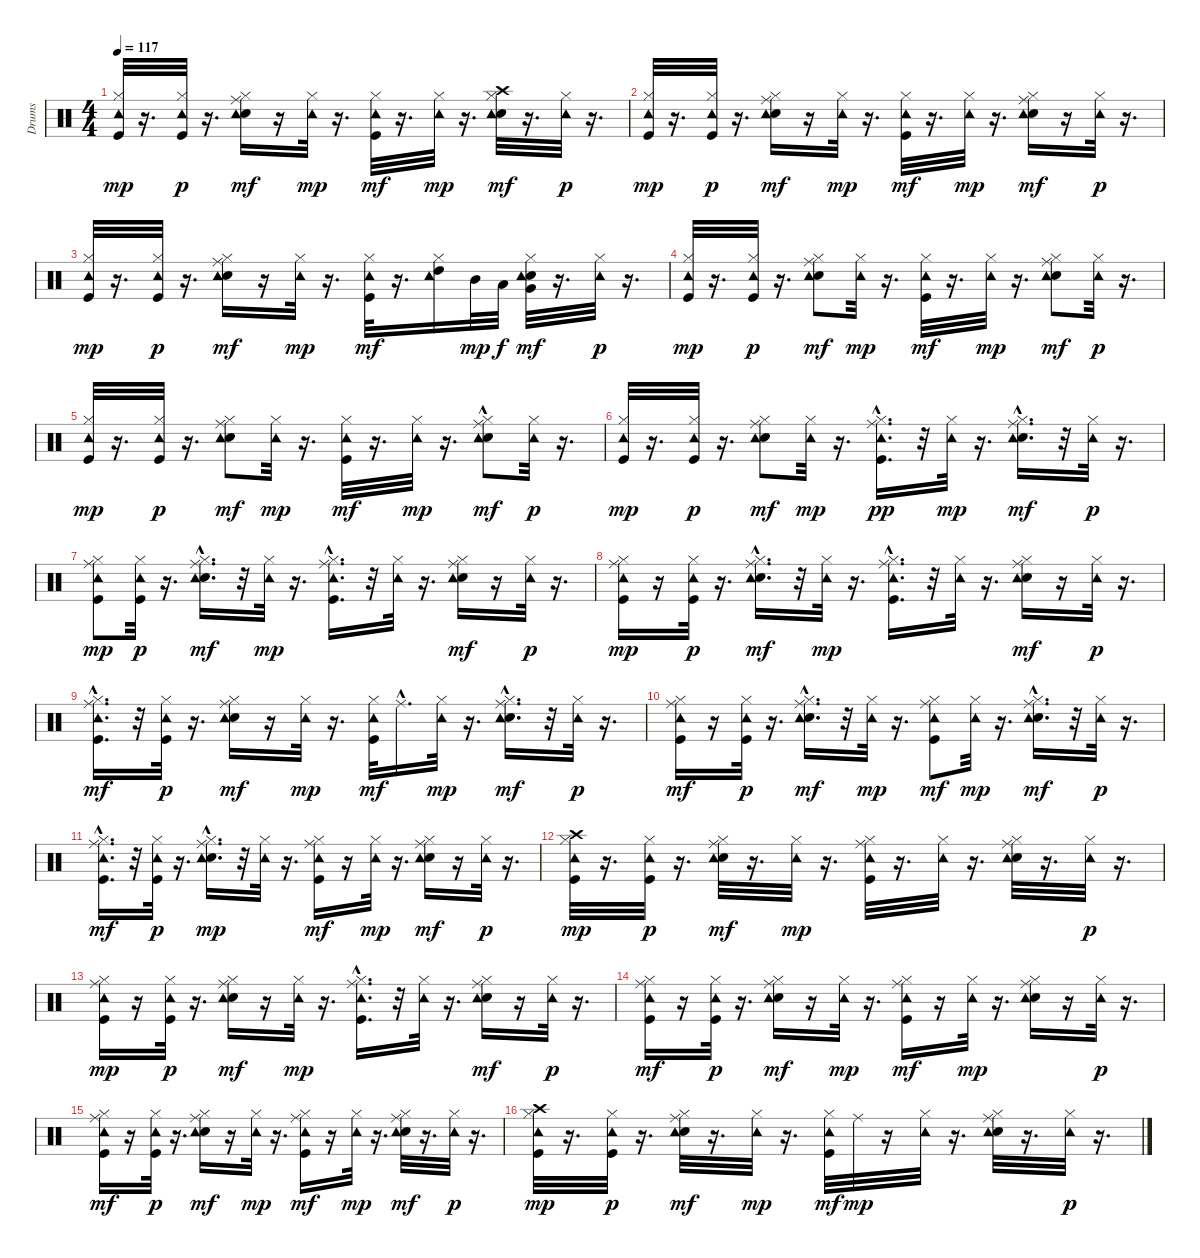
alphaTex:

\track ("Drums" "Drums") {instrument percussion}
\staff {score}
\articulation defaults
\ts (4 4)
\tempo 117
\clef neutral
\ks c
("Kick (hit)" "Hi-Hat (closed)" "Tambourine (hit)").32{dy mp} r.16{d} ("Kick (hit)" "Hi-Hat (closed)" "Tambourine (hit)").32{dy p} r.16{d} ("Electric Snare (hit)" "Hi-Hat (closed)" "Tambourine (hit)" "Ride (middle)").16{dy mf} r.16 ("Hi-Hat (closed)" "Tambourine (hit)").32{dy mp} r.16{d} ("Kick (hit)" "Hi-Hat (closed)" "Tambourine (hit)").32{dy mf} r.16{d} ("Hi-Hat (closed)" "Tambourine (hit)").32{dy mp} r.16{d} ("Electric Snare (hit)" "Hi-Hat (closed)" "Tambourine (hit)" "Crash high (hit)").32{dy mf} r.16{d} ("Hi-Hat (closed)" "Tambourine (hit)").32{dy p} r.16{d} |
("Kick (hit)" "Hi-Hat (closed)" "Tambourine (hit)").32{dy mp} r.16{d} ("Kick (hit)" "Hi-Hat (closed)" "Tambourine (hit)").32{dy p} r.16{d} ("Electric Snare (hit)" "Hi-Hat (closed)" "Tambourine (hit)" "Ride (middle)").16{dy mf} r.16 ("Hi-Hat (closed)" "Tambourine (hit)").32{dy mp} r.16{d} ("Kick (hit)" "Hi-Hat (closed)" "Tambourine (hit)").32{dy mf} r.16{d} ("Hi-Hat (closed)" "Tambourine (hit)").32{dy mp} r.16{d} ("Electric Snare (hit)" "Hi-Hat (closed)" "Tambourine (hit)" "Ride (middle)").16{dy mf} r.16 ("Hi-Hat (closed)" "Tambourine (hit)").32{dy p} r.16{d} |
("Kick (hit)" "Hi-Hat (closed)" "Tambourine (hit)").32{dy mp} r.16{d} ("Kick (hit)" "Hi-Hat (closed)" "Tambourine (hit)").32{dy p} r.16{d} ("Electric Snare (hit)" "Hi-Hat (closed)" "Tambourine (hit)" "Ride (middle)").16{dy mf} r.16 ("Hi-Hat (closed)" "Tambourine (hit)").32{dy mp} r.16{d} ("Kick (hit)" "Hi-Hat (closed)" "Tambourine (hit)").32{dy mf} r.16{d} ("Hi-Hat (closed)" "Tambourine (hit)" "High Tom (hit)").16 "Mid Tom (hit)".32{dy mp} "Low Tom (hit)".32{dy f} ("Electric Snare (hit)" "Hi-Hat (closed)" "Tambourine (hit)" "Very Low Tom (hit)").32{dy mf} r.16{d} ("Hi-Hat (closed)" "Tambourine (hit)").32{dy p} r.16{d} |
("Kick (hit)" "Hi-Hat (closed)" "Tambourine (hit)").32{dy mp} r.16{d} ("Kick (hit)" "Hi-Hat (closed)" "Tambourine (hit)").32{dy p} r.16{d} ("Electric Snare (hit)" "Hi-Hat (closed)" "Tambourine (hit)" "Ride (middle)").8{dy mf} ("Hi-Hat (closed)" "Tambourine (hit)").32{dy mp} r.16{d} ("Kick (hit)" "Hi-Hat (closed)" "Tambourine (hit)").32{dy mf} r.16{d} ("Hi-Hat (closed)" "Tambourine (hit)").32{dy mp} r.16{d} ("Electric Snare (hit)" "Hi-Hat (closed)" "Tambourine (hit)" "Ride (middle)").8{dy mf} ("Hi-Hat (closed)" "Tambourine (hit)").32{dy p} r.16{d} |
("Kick (hit)" "Hi-Hat (closed)" "Tambourine (hit)").32{dy mp} r.16{d} ("Kick (hit)" "Hi-Hat (closed)" "Tambourine (hit)").32{dy p} r.16{d} ("Electric Snare (hit)" "Hi-Hat (closed)" "Tambourine (hit)" "Ride (middle)").8{dy mf} ("Hi-Hat (closed)" "Tambourine (hit)").32{dy mp} r.16{d} ("Kick (hit)" "Hi-Hat (closed)" "Tambourine (hit)").32{dy mf} r.16{d} ("Hi-Hat (closed)" "Tambourine (hit)").32{dy mp} r.16{d} ("Electric Snare (hit)" "Hi-Hat (closed)" "Tambourine (hit)" "Ride (middle)"{hac}).8{dy mf} ("Hi-Hat (closed)" "Tambourine (hit)").32{dy p} r.16{d} |
("Kick (hit)" "Hi-Hat (closed)" "Tambourine (hit)").32{dy mp} r.16{d} ("Kick (hit)" "Hi-Hat (closed)" "Tambourine (hit)").32{dy p} r.16{d} ("Electric Snare (hit)" "Hi-Hat (closed)" "Tambourine (hit)" "Ride (middle)").8{dy mf} ("Hi-Hat (closed)" "Tambourine (hit)").32{dy mp} r.16{d} ("Kick (hit)" "Hi-Hat (closed)" "Tambourine (hit)" "Ride (middle)"{hac}).16{d dy pp} r.32 ("Hi-Hat (closed)" "Tambourine (hit)").32{dy mp} r.16{d} ("Electric Snare (hit)" "Hi-Hat (closed)" "Tambourine (hit)" "Ride (middle)"{hac}).16{d dy mf} r.32 ("Hi-Hat (closed)" "Tambourine (hit)").32{dy p} r.16{d} |
("Kick (hit)" "Hi-Hat (closed)" "Tambourine (hit)" "Ride (middle)").8{dy mp} ("Kick (hit)" "Hi-Hat (closed)" "Tambourine (hit)").32{dy p} r.16{d} ("Electric Snare (hit)" "Hi-Hat (closed)" "Tambourine (hit)" "Ride (middle)"{hac}).16{d dy mf} r.32 ("Hi-Hat (closed)" "Tambourine (hit)").32{dy mp} r.16{d} ("Kick (hit)" "Hi-Hat (closed)" "Tambourine (hit)" "Ride (middle)"{hac}).16{d} r.32 ("Hi-Hat (closed)" "Tambourine (hit)").32 r.16{d} ("Electric Snare (hit)" "Hi-Hat (closed)" "Tambourine (hit)" "Ride (middle)").16{dy mf} r.16 ("Hi-Hat (closed)" "Tambourine (hit)").32{dy p} r.16{d} |
("Kick (hit)" "Hi-Hat (closed)" "Tambourine (hit)" "Ride (middle)").16{dy mp} r.16 ("Kick (hit)" "Hi-Hat (closed)" "Tambourine (hit)").32{dy p} r.16{d} ("Electric Snare (hit)" "Hi-Hat (closed)" "Tambourine (hit)" "Ride (middle)"{hac}).16{d dy mf} r.32 ("Hi-Hat (closed)" "Tambourine (hit)").32{dy mp} r.16{d} ("Kick (hit)" "Hi-Hat (closed)" "Tambourine (hit)" "Ride (middle)"{hac}).16{d} r.32 ("Hi-Hat (closed)" "Tambourine (hit)").32 r.16{d} ("Electric Snare (hit)" "Hi-Hat (closed)" "Tambourine (hit)" "Ride (middle)").16{dy mf} r.16 ("Hi-Hat (closed)" "Tambourine (hit)").32{dy p} r.16{d} |
("Kick (hit)" "Hi-Hat (closed)" "Tambourine (hit)" "Ride (middle)"{hac}).16{d dy mf} r.32 ("Kick (hit)" "Hi-Hat (closed)" "Tambourine (hit)").32{dy p} r.16{d} ("Electric Snare (hit)" "Hi-Hat (closed)" "Tambourine (hit)" "Ride (middle)").16{dy mf} r.16 ("Hi-Hat (closed)" "Tambourine (hit)").32{dy mp} r.16{d} ("Kick (hit)" "Hi-Hat (closed)" "Tambourine (hit)").32{dy mf} "Ride (middle)"{hac}.16{d} ("Hi-Hat (closed)" "Tambourine (hit)").32{dy mp} r.16{d} ("Electric Snare (hit)" "Hi-Hat (closed)" "Tambourine (hit)" "Ride (middle)"{hac}).16{d dy mf} r.32 ("Hi-Hat (closed)" "Tambourine (hit)").32{dy p} r.16{d} |
("Kick (hit)" "Hi-Hat (closed)" "Tambourine (hit)" "Ride (middle)").16{dy mf} r.16 ("Kick (hit)" "Hi-Hat (closed)" "Tambourine (hit)").32{dy p} r.16{d} ("Electric Snare (hit)" "Hi-Hat (closed)" "Tambourine (hit)" "Ride (middle)"{hac}).16{d dy mf} r.32 ("Hi-Hat (closed)" "Tambourine (hit)").32{dy mp} r.16{d} ("Kick (hit)" "Hi-Hat (closed)" "Tambourine (hit)" "Ride (middle)").8{dy mf} ("Hi-Hat (closed)" "Tambourine (hit)").32{dy mp} r.16{d} ("Electric Snare (hit)" "Hi-Hat (closed)" "Tambourine (hit)" "Ride (middle)"{hac}).16{d dy mf} r.32 ("Hi-Hat (closed)" "Tambourine (hit)").32{dy p} r.16{d} |
("Kick (hit)" "Hi-Hat (closed)" "Tambourine (hit)" "Ride (middle)"{hac}).16{d dy mf} r.32 ("Kick (hit)" "Hi-Hat (closed)" "Tambourine (hit)").32{dy p} r.16{d} ("Electric Snare (hit)" "Hi-Hat (closed)" "Tambourine (hit)" "Ride (middle)"{hac}).16{d dy mp} r.32 ("Hi-Hat (closed)" "Tambourine (hit)").32 r.16{d} ("Kick (hit)" "Hi-Hat (closed)" "Tambourine (hit)" "Ride (middle)").16{dy mf} r.16 ("Hi-Hat (closed)" "Tambourine (hit)").32{dy mp} r.16{d} ("Electric Snare (hit)" "Hi-Hat (closed)" "Tambourine (hit)" "Ride (middle)").16{dy mf} r.16 ("Hi-Hat (closed)" "Tambourine (hit)").32{dy p} r.16{d} |
("Kick (hit)" "Hi-Hat (closed)" "Tambourine (hit)" "Crash high (hit)").32{dy mp} r.16{d} ("Kick (hit)" "Hi-Hat (closed)" "Tambourine (hit)").32{dy p} r.16{d} ("Electric Snare (hit)" "Hi-Hat (closed)" "Tambourine (hit)" "Ride (middle)").32{dy mf} r.16{d} ("Hi-Hat (closed)" "Tambourine (hit)").32{dy mp} r.16{d} ("Kick (hit)" "Hi-Hat (closed)" "Tambourine (hit)" "Ride (middle)").32 r.16{d} ("Hi-Hat (closed)" "Tambourine (hit)").32 r.16{d} ("Electric Snare (hit)" "Hi-Hat (closed)" "Tambourine (hit)" "Ride (middle)").32 r.16{d} ("Hi-Hat (closed)" "Tambourine (hit)").32{dy p} r.16{d} |
("Kick (hit)" "Hi-Hat (closed)" "Tambourine (hit)" "Ride (middle)").16{dy mp} r.16 ("Kick (hit)" "Hi-Hat (closed)" "Tambourine (hit)").32{dy p} r.16{d} ("Electric Snare (hit)" "Hi-Hat (closed)" "Tambourine (hit)" "Ride (middle)").16{dy mf} r.16 ("Hi-Hat (closed)" "Tambourine (hit)").32{dy mp} r.16{d} ("Kick (hit)" "Hi-Hat (closed)" "Tambourine (hit)" "Ride (middle)"{hac}).16{d} r.32 ("Hi-Hat (closed)" "Tambourine (hit)").32 r.16{d} ("Ride (middle)" "Electric Snare (hit)" "Hi-Hat (closed)" "Tambourine (hit)").16{dy mf} r.16 ("Hi-Hat (closed)" "Tambourine (hit)").32{dy p} r.16{d} |
("Kick (hit)" "Hi-Hat (closed)" "Tambourine (hit)" "Ride (middle)").16{dy mf} r.16 ("Kick (hit)" "Hi-Hat (closed)" "Tambourine (hit)").32{dy p} r.16{d} ("Electric Snare (hit)" "Hi-Hat (closed)" "Tambourine (hit)" "Ride (middle)").16{dy mf} r.16 ("Hi-Hat (closed)" "Tambourine (hit)").32{dy mp} r.16{d} ("Kick (hit)" "Hi-Hat (closed)" "Tambourine (hit)" "Ride (middle)").16{dy mf} r.16 ("Hi-Hat (closed)" "Tambourine (hit)").32{dy mp} r.16{d} ("Electric Snare (hit)" "Hi-Hat (closed)" "Tambourine (hit)" "Ride (middle)").16 r.16 ("Hi-Hat (closed)" "Tambourine (hit)").32{dy p} r.16{d} |
("Kick (hit)" "Hi-Hat (closed)" "Tambourine (hit)" "Ride (middle)").16{dy mf} r.16 ("Kick (hit)" "Hi-Hat (closed)" "Tambourine (hit)").32{dy p} r.16{d} ("Electric Snare (hit)" "Hi-Hat (closed)" "Tambourine (hit)" "Ride (middle)").16{dy mf} r.16 ("Hi-Hat (closed)" "Tambourine (hit)").32{dy mp} r.16{d} ("Kick (hit)" "Hi-Hat (closed)" "Tambourine (hit)" "Ride (middle)").16{dy mf} r.16 ("Hi-Hat (closed)" "Tambourine (hit)").32{dy mp} r.16{d} ("Electric Snare (hit)" "Hi-Hat (closed)" "Tambourine (hit)" "Ride (middle)").32{dy mf} r.16{d} ("Hi-Hat (closed)" "Tambourine (hit)").32{dy p} r.16{d} |
("Crash high (hit)" "Kick (hit)" "Hi-Hat (closed)" "Tambourine (hit)").32{dy mp} r.16{d} ("Kick (hit)" "Hi-Hat (closed)" "Tambourine (hit)").32{dy p} r.16{d} ("Electric Snare (hit)" "Hi-Hat (closed)" "Tambourine (hit)" "Ride (middle)").32{dy mf} r.16{d} ("Hi-Hat (closed)" "Tambourine (hit)").32{dy mp} r.16{d} ("Kick (hit)" "Hi-Hat (closed)" "Tambourine (hit)").32{dy mf} "Ride (middle)".32{dy mp} r.16 ("Hi-Hat (closed)" "Tambourine (hit)").32 r.16{d} ("Electric Snare (hit)" "Hi-Hat (closed)" "Tambourine (hit)" "Ride (middle)").32 r.16{d} ("Hi-Hat (closed)" "Tambourine (hit)").32{dy p} r.16{d}
